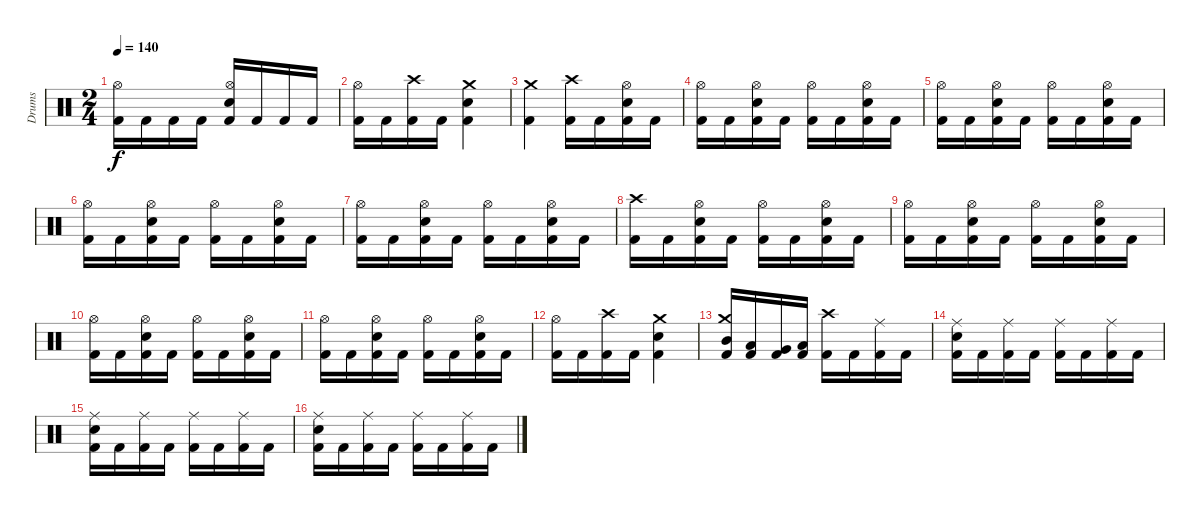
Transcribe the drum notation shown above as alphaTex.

\track ("Drums" "Drums") {instrument percussion}
\staff {score}
\articulation defaults
\ts (2 4)
\tempo 140
\clef neutral
\ks c
("Kick (hit) 2" "Hi-Hat (open)").16{dy f} "Kick (hit) 2".16 "Kick (hit) 2".16 "Kick (hit) 2".16 ("Kick (hit) 2" "Electric Snare (hit)" "Hi-Hat (open)").16 "Kick (hit) 2".16 "Kick (hit) 2".16 "Kick (hit) 2".16 |
("Kick (hit) 2" "Hi-Hat (open)").16 "Kick (hit) 2".16 ("Kick (hit) 2" "Crash high (hit)").16 "Kick (hit) 2".16 ("Kick (hit) 2" "Electric Snare (hit)" "Crash medium (hit)").4 |
("Kick (hit) 2" "Crash medium (hit)").4 ("Kick (hit) 2" "Crash high (hit)").16 "Kick (hit) 2".16 ("Kick (hit) 2" "Electric Snare (hit)" "Hi-Hat (open)").16 "Kick (hit) 2".16 |
("Kick (hit) 2" "Hi-Hat (open)").16 "Kick (hit) 2".16 ("Kick (hit) 2" "Electric Snare (hit)" "Hi-Hat (open)").16 "Kick (hit) 2".16 ("Kick (hit) 2" "Hi-Hat (open)").16 "Kick (hit) 2".16 ("Kick (hit) 2" "Electric Snare (hit)" "Hi-Hat (open)").16 "Kick (hit) 2".16 |
("Kick (hit) 2" "Hi-Hat (open)").16 "Kick (hit) 2".16 ("Kick (hit) 2" "Electric Snare (hit)" "Hi-Hat (open)").16 "Kick (hit) 2".16 ("Kick (hit) 2" "Hi-Hat (open)").16 "Kick (hit) 2".16 ("Kick (hit) 2" "Electric Snare (hit)" "Hi-Hat (open)").16 "Kick (hit) 2".16 |
("Kick (hit) 2" "Hi-Hat (open)").16 "Kick (hit) 2".16 ("Kick (hit) 2" "Electric Snare (hit)" "Hi-Hat (open)").16 "Kick (hit) 2".16 ("Kick (hit) 2" "Hi-Hat (open)").16 "Kick (hit) 2".16 ("Kick (hit) 2" "Electric Snare (hit)" "Hi-Hat (open)").16 "Kick (hit) 2".16 |
("Kick (hit) 2" "Hi-Hat (open)").16 "Kick (hit) 2".16 ("Kick (hit) 2" "Electric Snare (hit)" "Hi-Hat (open)").16 "Kick (hit) 2".16 ("Kick (hit) 2" "Hi-Hat (open)").16 "Kick (hit) 2".16 ("Kick (hit) 2" "Electric Snare (hit)" "Hi-Hat (open)").16 "Kick (hit) 2".16 |
("Kick (hit) 2" "Crash high (hit)").16 "Kick (hit) 2".16 ("Kick (hit) 2" "Electric Snare (hit)" "Hi-Hat (open)").16 "Kick (hit) 2".16 ("Kick (hit) 2" "Hi-Hat (open)").16 "Kick (hit) 2".16 ("Kick (hit) 2" "Electric Snare (hit)" "Hi-Hat (open)").16 "Kick (hit) 2".16 |
("Kick (hit) 2" "Hi-Hat (open)").16 "Kick (hit) 2".16 ("Kick (hit) 2" "Electric Snare (hit)" "Hi-Hat (open)").16 "Kick (hit) 2".16 ("Kick (hit) 2" "Hi-Hat (open)").16 "Kick (hit) 2".16 ("Kick (hit) 2" "Electric Snare (hit)" "Hi-Hat (open)").16 "Kick (hit) 2".16 |
("Kick (hit) 2" "Hi-Hat (open)").16 "Kick (hit) 2".16 ("Kick (hit) 2" "Electric Snare (hit)" "Hi-Hat (open)").16 "Kick (hit) 2".16 ("Kick (hit) 2" "Hi-Hat (open)").16 "Kick (hit) 2".16 ("Kick (hit) 2" "Electric Snare (hit)" "Hi-Hat (open)").16 "Kick (hit) 2".16 |
("Kick (hit) 2" "Hi-Hat (open)").16 "Kick (hit) 2".16 ("Kick (hit) 2" "Electric Snare (hit)" "Hi-Hat (open)").16 "Kick (hit) 2".16 ("Kick (hit) 2" "Hi-Hat (open)").16 "Kick (hit) 2".16 ("Kick (hit) 2" "Electric Snare (hit)" "Hi-Hat (open)").16 "Kick (hit) 2".16 |
("Kick (hit) 2" "Hi-Hat (open)").16 "Kick (hit) 2".16 ("Kick (hit) 2" "Crash high (hit)").16 "Kick (hit) 2".16 ("Kick (hit) 2" "Electric Snare (hit)" "Crash medium (hit)").4 |
("Kick (hit) 2" "Mid Tom (hit)" "Crash medium (hit)").16 ("Kick (hit) 2" "Low Tom (hit)").16 ("Kick (hit) 2" "Very Low Tom (hit)").16 ("Kick (hit) 2" "Low Floor Tom (hit)").16 ("Kick (hit) 2" "Crash high (hit)").16 "Kick (hit) 2".16 ("Kick (hit) 2" "Ride (middle)").16 "Kick (hit) 2".16 |
("Kick (hit) 2" "Electric Snare (hit)" "Ride (middle)").16 "Kick (hit) 2".16 ("Kick (hit) 2" "Ride (middle)").16 "Kick (hit) 2".16 ("Kick (hit) 2" "Ride (middle)").16 "Kick (hit) 2".16 ("Kick (hit) 2" "Ride (middle)").16 "Kick (hit) 2".16 |
("Kick (hit) 2" "Electric Snare (hit)" "Ride (middle)").16 "Kick (hit) 2".16 ("Kick (hit) 2" "Ride (middle)").16 "Kick (hit) 2".16 ("Kick (hit) 2" "Ride (middle)").16 "Kick (hit) 2".16 ("Kick (hit) 2" "Ride (middle)").16 "Kick (hit) 2".16 |
("Kick (hit) 2" "Electric Snare (hit)" "Ride (middle)").16 "Kick (hit) 2".16 ("Kick (hit) 2" "Ride (middle)").16 "Kick (hit) 2".16 ("Kick (hit) 2" "Ride (middle)").16 "Kick (hit) 2".16 ("Kick (hit) 2" "Ride (middle)").16 "Kick (hit) 2".16
